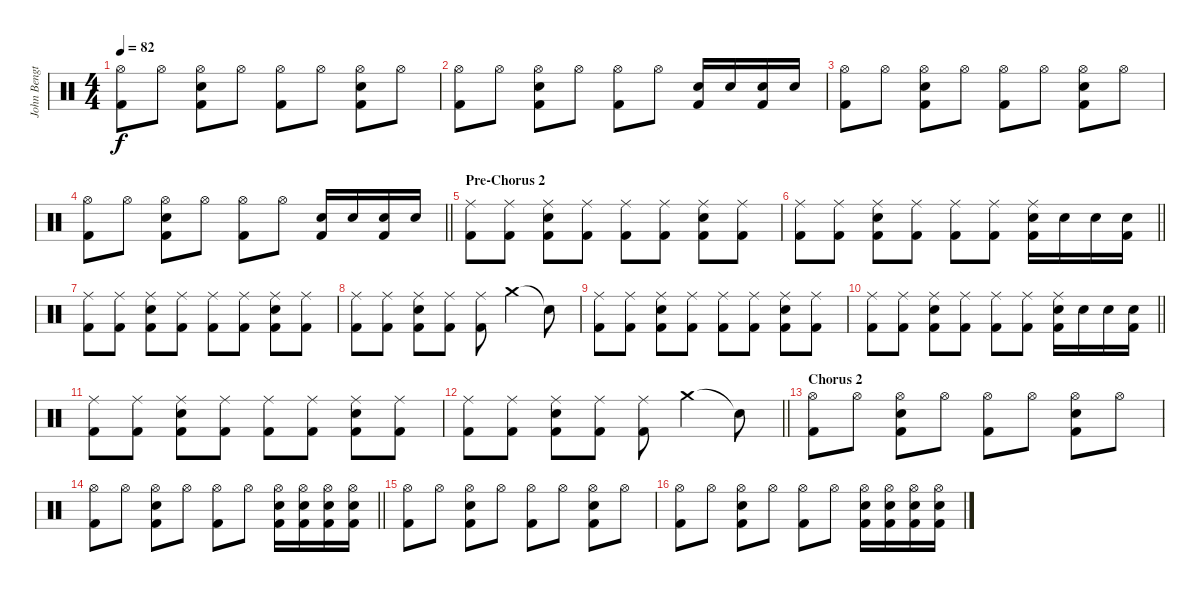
\track ("John Bengtsson" "John Bengt") {instrument percussion}
\staff {score}
\articulation defaults
\ts (4 4)
\tempo 82
\clef neutral
\ks c
("Hi-Hat (open)" "Kick (hit) 2").8{dy f} "Hi-Hat (open)".8 ("Hi-Hat (open)" "Electric Snare (hit)" "Kick (hit) 2").8 "Hi-Hat (open)".8 ("Hi-Hat (open)" "Kick (hit) 2").8 "Hi-Hat (open)".8 ("Hi-Hat (open)" "Electric Snare (hit)" "Kick (hit) 2").8 "Hi-Hat (open)".8 |
("Hi-Hat (open)" "Kick (hit) 2").8 "Hi-Hat (open)".8 ("Hi-Hat (open)" "Electric Snare (hit)" "Kick (hit) 2").8 "Hi-Hat (open)".8 ("Hi-Hat (open)" "Kick (hit) 2").8 "Hi-Hat (open)".8 ("Electric Snare (hit)" "Kick (hit) 2").16 "Electric Snare (hit)".16 ("Electric Snare (hit)" "Kick (hit) 2").16 "Electric Snare (hit)".16 |
("Hi-Hat (open)" "Kick (hit) 2").8 "Hi-Hat (open)".8 ("Hi-Hat (open)" "Electric Snare (hit)" "Kick (hit) 2").8 "Hi-Hat (open)".8 ("Hi-Hat (open)" "Kick (hit) 2").8 "Hi-Hat (open)".8 ("Hi-Hat (open)" "Electric Snare (hit)" "Kick (hit) 2").8 "Hi-Hat (open)".8 |
\barLineRight lightlight
("Hi-Hat (open)" "Kick (hit) 2").8 "Hi-Hat (open)".8 ("Hi-Hat (open)" "Electric Snare (hit)" "Kick (hit) 2").8 "Hi-Hat (open)".8 ("Hi-Hat (open)" "Kick (hit) 2").8 "Hi-Hat (open)".8 ("Electric Snare (hit)" "Kick (hit) 2").16 "Electric Snare (hit)".16 ("Electric Snare (hit)" "Kick (hit) 2").16 "Electric Snare (hit)".16 |
\section ("" "Pre-Chorus 2")
("Ride (middle)" "Kick (hit) 2").8 ("Ride (middle)" "Kick (hit) 2").8 ("Ride (middle)" "Electric Snare (hit)" "Kick (hit) 2").8 ("Ride (middle)" "Kick (hit) 2").8 ("Ride (middle)" "Kick (hit) 2").8 ("Ride (middle)" "Kick (hit) 2").8 ("Ride (middle)" "Electric Snare (hit)" "Kick (hit) 2").8 ("Ride (middle)" "Kick (hit) 2").8 |
\barLineRight lightlight
("Ride (middle)" "Kick (hit) 2").8 ("Ride (middle)" "Kick (hit) 2").8 ("Ride (middle)" "Electric Snare (hit)" "Kick (hit) 2").8 ("Ride (middle)" "Kick (hit) 2").8 ("Ride (middle)" "Kick (hit) 2").8 ("Ride (middle)" "Kick (hit) 2").8 ("Ride (middle)" "Electric Snare (hit)" "Kick (hit) 2").16 "Electric Snare (hit)".16 "Electric Snare (hit)".16 ("Electric Snare (hit)" "Kick (hit) 2").16 |
("Ride (middle)" "Kick (hit) 2").8 ("Ride (middle)" "Kick (hit) 2").8 ("Ride (middle)" "Electric Snare (hit)" "Kick (hit) 2").8 ("Ride (middle)" "Kick (hit) 2").8 ("Ride (middle)" "Kick (hit) 2").8 ("Ride (middle)" "Kick (hit) 2").8 ("Ride (middle)" "Electric Snare (hit)" "Kick (hit) 2").8 ("Ride (middle)" "Kick (hit) 2").8 |
("Ride (middle)" "Kick (hit) 2").8 ("Ride (middle)" "Kick (hit) 2").8 ("Ride (middle)" "Electric Snare (hit)" "Kick (hit) 2").8 ("Ride (middle)" "Kick (hit) 2").8 ("Ride (middle)" "Kick (hit) 2").8 "Crash medium (hit)".4 "Snare (hit)"{t}.8 |
("Ride (middle)" "Kick (hit) 2").8 ("Ride (middle)" "Kick (hit) 2").8 ("Ride (middle)" "Electric Snare (hit)" "Kick (hit) 2").8 ("Ride (middle)" "Kick (hit) 2").8 ("Ride (middle)" "Kick (hit) 2").8 ("Ride (middle)" "Kick (hit) 2").8 ("Ride (middle)" "Electric Snare (hit)" "Kick (hit) 2").8 ("Ride (middle)" "Kick (hit) 2").8 |
\barLineRight lightlight
("Ride (middle)" "Kick (hit) 2").8 ("Ride (middle)" "Kick (hit) 2").8 ("Ride (middle)" "Electric Snare (hit)" "Kick (hit) 2").8 ("Ride (middle)" "Kick (hit) 2").8 ("Ride (middle)" "Kick (hit) 2").8 ("Ride (middle)" "Kick (hit) 2").8 ("Ride (middle)" "Electric Snare (hit)" "Kick (hit) 2").16 "Electric Snare (hit)".16 "Electric Snare (hit)".16 ("Electric Snare (hit)" "Kick (hit) 2").16 |
("Ride (middle)" "Kick (hit) 2").8 ("Ride (middle)" "Kick (hit) 2").8 ("Ride (middle)" "Electric Snare (hit)" "Kick (hit) 2").8 ("Ride (middle)" "Kick (hit) 2").8 ("Ride (middle)" "Kick (hit) 2").8 ("Ride (middle)" "Kick (hit) 2").8 ("Ride (middle)" "Electric Snare (hit)" "Kick (hit) 2").8 ("Ride (middle)" "Kick (hit) 2").8 |
\barLineRight lightlight
("Ride (middle)" "Kick (hit) 2").8 ("Ride (middle)" "Kick (hit) 2").8 ("Ride (middle)" "Electric Snare (hit)" "Kick (hit) 2").8 ("Ride (middle)" "Kick (hit) 2").8 ("Ride (middle)" "Kick (hit) 2").8 "Crash medium (hit)".4 "Snare (hit)"{t}.8 |
\section ("" "Chorus 2")
("Hi-Hat (open)" "Kick (hit) 2").8 "Hi-Hat (open)".8 ("Hi-Hat (open)" "Electric Snare (hit)" "Kick (hit) 2").8 "Hi-Hat (open)".8 ("Hi-Hat (open)" "Kick (hit) 2").8 "Hi-Hat (open)".8 ("Hi-Hat (open)" "Electric Snare (hit)" "Kick (hit) 2").8 "Hi-Hat (open)".8 |
\barLineRight lightlight
("Hi-Hat (open)" "Kick (hit) 2").8 "Hi-Hat (open)".8 ("Hi-Hat (open)" "Electric Snare (hit)" "Kick (hit) 2").8 "Hi-Hat (open)".8 ("Hi-Hat (open)" "Kick (hit) 2").8 "Hi-Hat (open)".8 ("Hi-Hat (open)" "Electric Snare (hit)" "Kick (hit) 2").16 ("Hi-Hat (open)" "Electric Snare (hit)" "Kick (hit) 2").16 ("Hi-Hat (open)" "Electric Snare (hit)" "Kick (hit) 2").16 ("Hi-Hat (open)" "Electric Snare (hit)" "Kick (hit) 2").16 |
("Hi-Hat (open)" "Kick (hit) 2").8 "Hi-Hat (open)".8 ("Hi-Hat (open)" "Electric Snare (hit)" "Kick (hit) 2").8 "Hi-Hat (open)".8 ("Hi-Hat (open)" "Kick (hit) 2").8 "Hi-Hat (open)".8 ("Hi-Hat (open)" "Electric Snare (hit)" "Kick (hit) 2").8 "Hi-Hat (open)".8 |
("Hi-Hat (open)" "Kick (hit) 2").8 "Hi-Hat (open)".8 ("Hi-Hat (open)" "Electric Snare (hit)" "Kick (hit) 2").8 "Hi-Hat (open)".8 ("Hi-Hat (open)" "Kick (hit) 2").8 "Hi-Hat (open)".8 ("Hi-Hat (open)" "Electric Snare (hit)" "Kick (hit) 2").16 ("Hi-Hat (open)" "Electric Snare (hit)" "Kick (hit) 2").16 ("Hi-Hat (open)" "Electric Snare (hit)" "Kick (hit) 2").16 ("Hi-Hat (open)" "Electric Snare (hit)" "Kick (hit) 2").16
